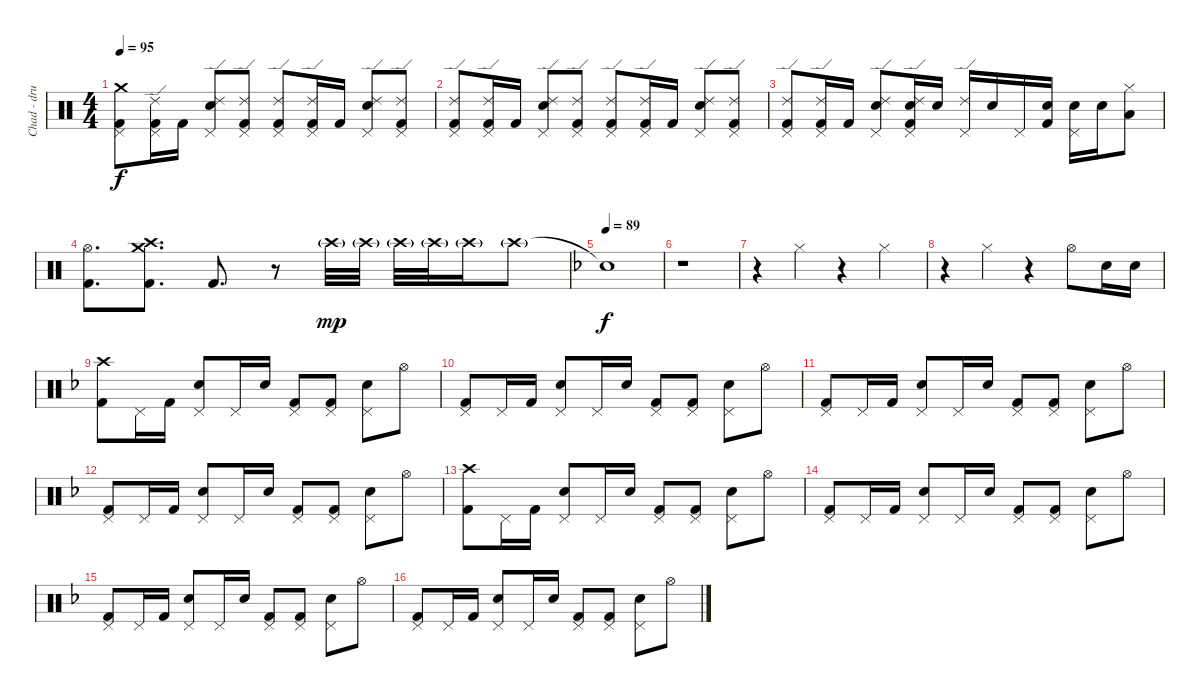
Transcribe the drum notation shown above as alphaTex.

\track ("Chad - drums" "Chad - dru") {instrument percussion}
\staff {score}
\articulation defaults
\ts (4 4)
\tempo 95
\clef neutral
\ks c
("Crash medium (hit)" "Pedal Hi-Hat (hit)" "Kick (hit) 2").8{dy f} ("Ride (edge) 2" "Pedal Hi-Hat (hit)" "Kick (hit) 2").16 "Kick (hit) 2".16 ("Ride (edge) 2" "Pedal Hi-Hat (hit)" "Electric Snare (hit)").8 ("Ride (edge) 2" "Pedal Hi-Hat (hit)" "Kick (hit) 2").8 ("Ride (edge) 2" "Pedal Hi-Hat (hit)" "Kick (hit) 2").8 ("Ride (edge) 2" "Pedal Hi-Hat (hit)" "Kick (hit) 2").16 "Kick (hit) 2".16 ("Ride (edge) 2" "Pedal Hi-Hat (hit)" "Electric Snare (hit)").8 ("Ride (edge) 2" "Pedal Hi-Hat (hit)" "Kick (hit) 2").8 |
("Ride (edge) 2" "Pedal Hi-Hat (hit)" "Kick (hit) 2").8 ("Ride (edge) 2" "Pedal Hi-Hat (hit)" "Kick (hit) 2").16 "Kick (hit) 2".16 ("Ride (edge) 2" "Pedal Hi-Hat (hit)" "Electric Snare (hit)").8 ("Ride (edge) 2" "Pedal Hi-Hat (hit)" "Kick (hit) 2").8 ("Ride (edge) 2" "Pedal Hi-Hat (hit)" "Kick (hit) 2").8 ("Ride (edge) 2" "Pedal Hi-Hat (hit)" "Kick (hit) 2").16 "Kick (hit) 2".16 ("Ride (edge) 2" "Pedal Hi-Hat (hit)" "Electric Snare (hit)").8 ("Ride (edge) 2" "Pedal Hi-Hat (hit)" "Kick (hit) 2").8 |
("Ride (edge) 2" "Pedal Hi-Hat (hit)" "Kick (hit) 2").8 ("Ride (edge) 2" "Pedal Hi-Hat (hit)" "Kick (hit) 2").16 "Kick (hit) 2".16 ("Ride (edge) 2" "Pedal Hi-Hat (hit)" "Electric Snare (hit)").8 ("Ride (edge) 2" "Pedal Hi-Hat (hit)" "Electric Snare (hit)" "Kick (hit) 2").16 "Electric Snare (hit)".16 ("Ride (edge) 2" "Pedal Hi-Hat (hit)").16 "Electric Snare (hit)".16 "Pedal Hi-Hat (hit)".16 ("Electric Snare (hit)" "Kick (hit) 2").16 ("Pedal Hi-Hat (hit)" "Electric Snare (hit)").16 "Electric Snare (hit)".16 ("Hi-Hat (closed)" "Low Tom (hit)").8 |
("Hi-Hat (open)" "Kick (hit) 2").8{d} ("Crash medium (hit)" "Crash high (hit)" "Kick (hit) 2").8{d} "Kick (hit) 2".8{d} r.8 "Crash high (hit)"{g}.32{dy mp} "Crash high (hit)"{g}.32 "Crash high (hit)"{g}.32 "Crash high (hit)"{g}.32 "Crash high (hit)"{g}.16 "Crash high (hit)"{g}.8 |
\tempo 89
\ks f "Snare (hit)"{t}.1{dy f}
|
r.1 |
r.4 "Hi-Hat (closed)".4 r.4 "Hi-Hat (closed)".4 |
r.4 "Hi-Hat (closed)".4 r.4 "Hi-Hat (open)".8 "Electric Snare (hit)".16 "Electric Snare (hit)".16 |
("Crash high (hit)" "Kick (hit) 2").8 "Pedal Hi-Hat (hit)".16 "Kick (hit) 2".16 ("Pedal Hi-Hat (hit)" "Electric Snare (hit)").8 "Pedal Hi-Hat (hit)".16 "Electric Snare (hit)".16 ("Pedal Hi-Hat (hit)" "Kick (hit) 2").8 ("Pedal Hi-Hat (hit)" "Kick (hit) 2").8 ("Pedal Hi-Hat (hit)" "Electric Snare (hit)").8 "Hi-Hat (open)".8 |
("Pedal Hi-Hat (hit)" "Kick (hit) 2").8 "Pedal Hi-Hat (hit)".16 "Kick (hit) 2".16 ("Pedal Hi-Hat (hit)" "Electric Snare (hit)").8 "Pedal Hi-Hat (hit)".16 "Electric Snare (hit)".16 ("Pedal Hi-Hat (hit)" "Kick (hit) 2").8 ("Pedal Hi-Hat (hit)" "Kick (hit) 2").8 ("Pedal Hi-Hat (hit)" "Electric Snare (hit)").8 "Hi-Hat (open)".8 |
("Pedal Hi-Hat (hit)" "Kick (hit) 2").8 "Pedal Hi-Hat (hit)".16 "Kick (hit) 2".16 ("Pedal Hi-Hat (hit)" "Electric Snare (hit)").8 "Pedal Hi-Hat (hit)".16 "Electric Snare (hit)".16 ("Pedal Hi-Hat (hit)" "Kick (hit) 2").8 ("Pedal Hi-Hat (hit)" "Kick (hit) 2").8 ("Pedal Hi-Hat (hit)" "Electric Snare (hit)").8 "Hi-Hat (open)".8 |
("Pedal Hi-Hat (hit)" "Kick (hit) 2").8 "Pedal Hi-Hat (hit)".16 "Kick (hit) 2".16 ("Pedal Hi-Hat (hit)" "Electric Snare (hit)").8 "Pedal Hi-Hat (hit)".16 "Electric Snare (hit)".16 ("Pedal Hi-Hat (hit)" "Kick (hit) 2").8 ("Pedal Hi-Hat (hit)" "Kick (hit) 2").8 ("Pedal Hi-Hat (hit)" "Electric Snare (hit)").8 "Hi-Hat (open)".8 |
("Crash high (hit)" "Kick (hit) 2").8 "Pedal Hi-Hat (hit)".16 "Kick (hit) 2".16 ("Pedal Hi-Hat (hit)" "Electric Snare (hit)").8 "Pedal Hi-Hat (hit)".16 "Electric Snare (hit)".16 ("Pedal Hi-Hat (hit)" "Kick (hit) 2").8 ("Pedal Hi-Hat (hit)" "Kick (hit) 2").8 ("Pedal Hi-Hat (hit)" "Electric Snare (hit)").8 "Hi-Hat (open)".8 |
("Pedal Hi-Hat (hit)" "Kick (hit) 2").8 "Pedal Hi-Hat (hit)".16 "Kick (hit) 2".16 ("Pedal Hi-Hat (hit)" "Electric Snare (hit)").8 "Pedal Hi-Hat (hit)".16 "Electric Snare (hit)".16 ("Pedal Hi-Hat (hit)" "Kick (hit) 2").8 ("Pedal Hi-Hat (hit)" "Kick (hit) 2").8 ("Pedal Hi-Hat (hit)" "Electric Snare (hit)").8 "Hi-Hat (open)".8 |
("Pedal Hi-Hat (hit)" "Kick (hit) 2").8 "Pedal Hi-Hat (hit)".16 "Kick (hit) 2".16 ("Pedal Hi-Hat (hit)" "Electric Snare (hit)").8 "Pedal Hi-Hat (hit)".16 "Electric Snare (hit)".16 ("Pedal Hi-Hat (hit)" "Kick (hit) 2").8 ("Pedal Hi-Hat (hit)" "Kick (hit) 2").8 ("Pedal Hi-Hat (hit)" "Electric Snare (hit)").8 "Hi-Hat (open)".8 |
("Pedal Hi-Hat (hit)" "Kick (hit) 2").8 "Pedal Hi-Hat (hit)".16 "Kick (hit) 2".16 ("Pedal Hi-Hat (hit)" "Electric Snare (hit)").8 "Pedal Hi-Hat (hit)".16 "Electric Snare (hit)".16 ("Pedal Hi-Hat (hit)" "Kick (hit) 2").8 ("Pedal Hi-Hat (hit)" "Kick (hit) 2").8 ("Pedal Hi-Hat (hit)" "Electric Snare (hit)").8 "Hi-Hat (open)".8
